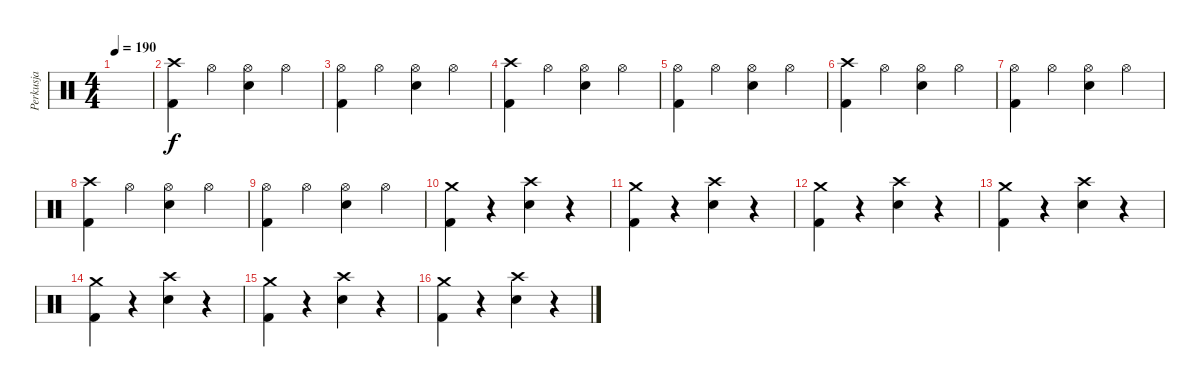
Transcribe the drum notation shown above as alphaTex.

\track ("Perkusja" "Perkusja") {instrument percussion}
\staff {score}
\articulation defaults
\ts (4 4)
\tempo 190
\clef neutral
\ks c
|
("Crash high (hit)" "Kick (hit) 2").4 "Hi-Hat (open)".4 ("Hi-Hat (open)" "Electric Snare (hit)").4 "Hi-Hat (open)".4 |
("Hi-Hat (open)" "Kick (hit) 2").4 "Hi-Hat (open)".4 ("Hi-Hat (open)" "Electric Snare (hit)").4 "Hi-Hat (open)".4 |
("Crash high (hit)" "Kick (hit) 2").4 "Hi-Hat (open)".4 ("Hi-Hat (open)" "Electric Snare (hit)").4 "Hi-Hat (open)".4 |
("Hi-Hat (open)" "Kick (hit) 2").4 "Hi-Hat (open)".4 ("Hi-Hat (open)" "Electric Snare (hit)").4 "Hi-Hat (open)".4 |
("Crash high (hit)" "Kick (hit) 2").4 "Hi-Hat (open)".4 ("Hi-Hat (open)" "Electric Snare (hit)").4 "Hi-Hat (open)".4 |
("Hi-Hat (open)" "Kick (hit) 2").4 "Hi-Hat (open)".4 ("Hi-Hat (open)" "Electric Snare (hit)").4 "Hi-Hat (open)".4 |
("Crash high (hit)" "Kick (hit) 2").4 "Hi-Hat (open)".4 ("Hi-Hat (open)" "Electric Snare (hit)").4 "Hi-Hat (open)".4 |
("Hi-Hat (open)" "Kick (hit) 2").4 "Hi-Hat (open)".4 ("Hi-Hat (open)" "Electric Snare (hit)").4 "Hi-Hat (open)".4 |
("Crash medium (hit)" "Kick (hit) 2").4 r.4 ("Crash high (hit)" "Electric Snare (hit)").4 r.4 |
("Crash medium (hit)" "Kick (hit) 2").4 r.4 ("Crash high (hit)" "Electric Snare (hit)").4 r.4 |
("Crash medium (hit)" "Kick (hit) 2").4 r.4 ("Crash high (hit)" "Electric Snare (hit)").4 r.4 |
("Crash medium (hit)" "Kick (hit) 2").4 r.4 ("Crash high (hit)" "Electric Snare (hit)").4 r.4 |
("Crash medium (hit)" "Kick (hit) 2").4 r.4 ("Crash high (hit)" "Electric Snare (hit)").4 r.4 |
("Crash medium (hit)" "Kick (hit) 2").4 r.4 ("Crash high (hit)" "Electric Snare (hit)").4 r.4 |
("Crash medium (hit)" "Kick (hit) 2").4 r.4 ("Crash high (hit)" "Electric Snare (hit)").4 r.4
